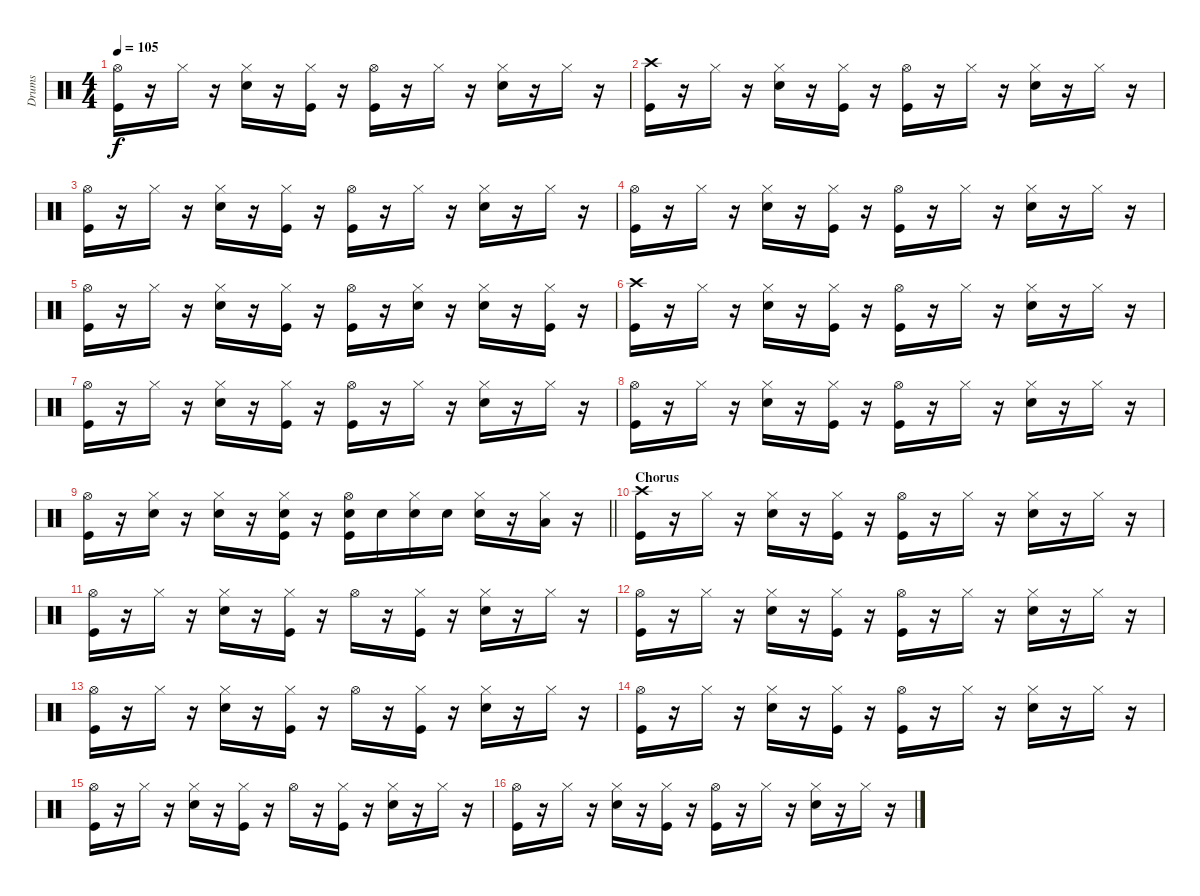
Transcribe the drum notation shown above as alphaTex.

\track ("Drums" "Drums") {instrument percussion}
\staff {score}
\articulation defaults
\ts (4 4)
\tempo 105
\clef neutral
\ks c
("Hi-Hat (open)" "Kick (hit)").16{dy f} r.16 "Hi-Hat (closed)".16 r.16 ("Hi-Hat (closed)" "Snare (hit) 2").16 r.16 ("Hi-Hat (closed)" "Kick (hit)").16 r.16 ("Hi-Hat (open)" "Kick (hit)").16 r.16 "Hi-Hat (closed)".16 r.16 ("Hi-Hat (closed)" "Snare (hit) 2").16 r.16 "Hi-Hat (closed)".16 r.16 |
("Crash high (hit)" "Kick (hit)").16 r.16 "Hi-Hat (closed)".16 r.16 ("Hi-Hat (closed)" "Snare (hit) 2").16 r.16 ("Hi-Hat (closed)" "Kick (hit)").16 r.16 ("Hi-Hat (open)" "Kick (hit)").16 r.16 "Hi-Hat (closed)".16 r.16 ("Hi-Hat (closed)" "Snare (hit) 2").16 r.16 "Hi-Hat (closed)".16 r.16 |
("Hi-Hat (open)" "Kick (hit)").16 r.16 "Hi-Hat (closed)".16 r.16 ("Hi-Hat (closed)" "Snare (hit) 2").16 r.16 ("Hi-Hat (closed)" "Kick (hit)").16 r.16 ("Hi-Hat (open)" "Kick (hit)").16 r.16 "Hi-Hat (closed)".16 r.16 ("Hi-Hat (closed)" "Snare (hit) 2").16 r.16 "Hi-Hat (closed)".16 r.16 |
("Hi-Hat (open)" "Kick (hit)").16 r.16 "Hi-Hat (closed)".16 r.16 ("Hi-Hat (closed)" "Snare (hit) 2").16 r.16 ("Hi-Hat (closed)" "Kick (hit)").16 r.16 ("Hi-Hat (open)" "Kick (hit)").16 r.16 "Hi-Hat (closed)".16 r.16 ("Hi-Hat (closed)" "Snare (hit) 2").16 r.16 "Hi-Hat (closed)".16 r.16 |
("Hi-Hat (open)" "Kick (hit)").16 r.16 "Hi-Hat (closed)".16 r.16 ("Hi-Hat (closed)" "Snare (hit) 2").16 r.16 ("Hi-Hat (closed)" "Kick (hit)").16 r.16 ("Hi-Hat (open)" "Kick (hit)").16 r.16 ("Hi-Hat (closed)" "Snare (hit) 2").16 r.16 ("Hi-Hat (closed)" "Snare (hit) 2").16 r.16 ("Hi-Hat (closed)" "Kick (hit)").16 r.16 |
("Crash high (hit)" "Kick (hit)").16 r.16 "Hi-Hat (closed)".16 r.16 ("Hi-Hat (closed)" "Snare (hit) 2").16 r.16 ("Hi-Hat (closed)" "Kick (hit)").16 r.16 ("Hi-Hat (open)" "Kick (hit)").16 r.16 "Hi-Hat (closed)".16 r.16 ("Hi-Hat (closed)" "Snare (hit) 2").16 r.16 "Hi-Hat (closed)".16 r.16 |
("Hi-Hat (open)" "Kick (hit)").16 r.16 "Hi-Hat (closed)".16 r.16 ("Hi-Hat (closed)" "Snare (hit) 2").16 r.16 ("Hi-Hat (closed)" "Kick (hit)").16 r.16 ("Hi-Hat (open)" "Kick (hit)").16 r.16 "Hi-Hat (closed)".16 r.16 ("Hi-Hat (closed)" "Snare (hit) 2").16 r.16 "Hi-Hat (closed)".16 r.16 |
("Hi-Hat (open)" "Kick (hit)").16 r.16 "Hi-Hat (closed)".16 r.16 ("Hi-Hat (closed)" "Snare (hit) 2").16 r.16 ("Hi-Hat (closed)" "Kick (hit)").16 r.16 ("Hi-Hat (open)" "Kick (hit)").16 r.16 "Hi-Hat (closed)".16 r.16 ("Hi-Hat (closed)" "Snare (hit) 2").16 r.16 "Hi-Hat (closed)".16 r.16 |
\barLineRight lightlight
("Hi-Hat (open)" "Kick (hit)").16 r.16 ("Hi-Hat (closed)" "Snare (hit) 2").16 r.16 ("Hi-Hat (closed)" "Snare (hit) 2").16 r.16 ("Hi-Hat (closed)" "Snare (hit) 2" "Kick (hit)").16 r.16 ("Hi-Hat (open)" "Snare (hit) 2" "Kick (hit)").16 "Snare (hit) 2".16 ("Hi-Hat (closed)" "Snare (hit) 2").16 "Snare (hit) 2".16 ("Hi-Hat (closed)" "Snare (hit) 2").16 r.16 ("Hi-Hat (closed)" "Low Tom (hit)").16 r.16 |
\section ("" "Chorus")
("Crash high (hit)" "Kick (hit)").16 r.16 "Hi-Hat (closed)".16 r.16 ("Hi-Hat (closed)" "Snare (hit) 2").16 r.16 ("Hi-Hat (closed)" "Kick (hit)").16 r.16 ("Hi-Hat (open)" "Kick (hit)").16 r.16 "Hi-Hat (closed)".16 r.16 ("Hi-Hat (closed)" "Snare (hit) 2").16 r.16 "Hi-Hat (closed)".16 r.16 |
("Hi-Hat (open)" "Kick (hit)").16 r.16 "Hi-Hat (closed)".16 r.16 ("Hi-Hat (closed)" "Snare (hit) 2").16 r.16 ("Hi-Hat (closed)" "Kick (hit)").16 r.16 "Hi-Hat (open)".16 r.16 ("Hi-Hat (closed)" "Kick (hit)").16 r.16 ("Hi-Hat (closed)" "Snare (hit) 2").16 r.16 "Hi-Hat (closed)".16 r.16 |
("Hi-Hat (open)" "Kick (hit)").16 r.16 "Hi-Hat (closed)".16 r.16 ("Hi-Hat (closed)" "Snare (hit) 2").16 r.16 ("Hi-Hat (closed)" "Kick (hit)").16 r.16 ("Hi-Hat (open)" "Kick (hit)").16 r.16 "Hi-Hat (closed)".16 r.16 ("Hi-Hat (closed)" "Snare (hit) 2").16 r.16 "Hi-Hat (closed)".16 r.16 |
("Hi-Hat (open)" "Kick (hit)").16 r.16 "Hi-Hat (closed)".16 r.16 ("Hi-Hat (closed)" "Snare (hit) 2").16 r.16 ("Hi-Hat (closed)" "Kick (hit)").16 r.16 "Hi-Hat (open)".16 r.16 ("Hi-Hat (closed)" "Kick (hit)").16 r.16 ("Hi-Hat (closed)" "Snare (hit) 2").16 r.16 "Hi-Hat (closed)".16 r.16 |
("Hi-Hat (open)" "Kick (hit)").16 r.16 "Hi-Hat (closed)".16 r.16 ("Hi-Hat (closed)" "Snare (hit) 2").16 r.16 ("Hi-Hat (closed)" "Kick (hit)").16 r.16 ("Hi-Hat (open)" "Kick (hit)").16 r.16 "Hi-Hat (closed)".16 r.16 ("Hi-Hat (closed)" "Snare (hit) 2").16 r.16 "Hi-Hat (closed)".16 r.16 |
("Hi-Hat (open)" "Kick (hit)").16 r.16 "Hi-Hat (closed)".16 r.16 ("Hi-Hat (closed)" "Snare (hit) 2").16 r.16 ("Hi-Hat (closed)" "Kick (hit)").16 r.16 "Hi-Hat (open)".16 r.16 ("Hi-Hat (closed)" "Kick (hit)").16 r.16 ("Hi-Hat (closed)" "Snare (hit) 2").16 r.16 "Hi-Hat (closed)".16 r.16 |
("Hi-Hat (open)" "Kick (hit)").16 r.16 "Hi-Hat (closed)".16 r.16 ("Hi-Hat (closed)" "Snare (hit) 2").16 r.16 ("Hi-Hat (closed)" "Kick (hit)").16 r.16 ("Hi-Hat (open)" "Kick (hit)").16 r.16 "Hi-Hat (closed)".16 r.16 ("Hi-Hat (closed)" "Snare (hit) 2").16 r.16 "Hi-Hat (closed)".16 r.16
